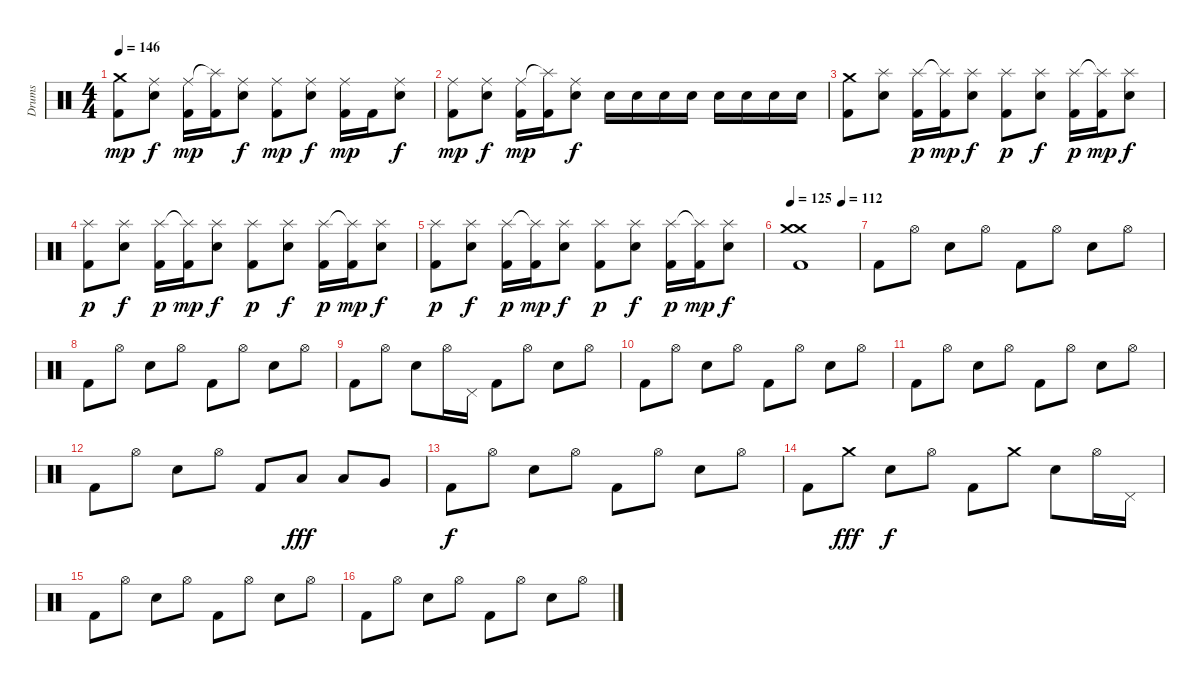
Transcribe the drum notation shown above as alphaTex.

\track ("Drums" "Drums") {instrument percussion}
\staff {score}
\articulation defaults
\ts (4 4)
\tempo 146
\clef neutral
\ks c
("Crash medium (hit)" "Kick (hit) 2").8{dy mp} ("Ride (middle)" "Snare (hit) 2").8{dy f} ("Ride (middle)" "Kick (hit) 2").16{dy mp} ("Splash (hit)"{t} "Kick (hit) 2").16 ("Ride (middle)" "Snare (hit) 2").8{dy f} ("Ride (middle)" "Kick (hit) 2").8{dy mp} ("Ride (middle)" "Snare (hit) 2").8{dy f} ("Ride (middle)" "Kick (hit) 2").16{dy mp} "Kick (hit) 2".16 ("Ride (middle)" "Snare (hit) 2").8{dy f} |
("Ride (middle)" "Kick (hit) 2").8{dy mp} ("Ride (middle)" "Snare (hit) 2").8{dy f} ("Ride (middle)" "Kick (hit) 2").16{dy mp} ("Splash (hit)"{t} "Kick (hit) 2").16 ("Ride (middle)" "Snare (hit) 2").8{dy f} "Snare (hit) 2".16 "Snare (hit) 2".16 "Snare (hit) 2".16 "Snare (hit) 2".16 "Snare (hit) 2".16 "Snare (hit) 2".16 "Snare (hit) 2".16 "Snare (hit) 2".16 |
("Crash medium (hit)" "Kick (hit) 2").8 ("Splash (hit)" "Snare (hit) 2").8 ("Splash (hit)" "Kick (hit) 2").16{dy p} ("Splash (hit)"{t} "Kick (hit) 2").16{dy mp} ("Splash (hit)" "Snare (hit) 2").8{dy f} ("Splash (hit)" "Kick (hit) 2").8{dy p} ("Splash (hit)" "Snare (hit) 2").8{dy f} ("Splash (hit)" "Kick (hit) 2").16{dy p} ("Splash (hit)"{t} "Kick (hit) 2").16{dy mp} ("Splash (hit)" "Snare (hit) 2").8{dy f} |
("Splash (hit)" "Kick (hit) 2").8{dy p} ("Splash (hit)" "Snare (hit) 2").8{dy f} ("Splash (hit)" "Kick (hit) 2").16{dy p} ("Splash (hit)"{t} "Kick (hit) 2").16{dy mp} ("Splash (hit)" "Snare (hit) 2").8{dy f} ("Splash (hit)" "Kick (hit) 2").8{dy p} ("Splash (hit)" "Snare (hit) 2").8{dy f} ("Splash (hit)" "Kick (hit) 2").16{dy p} ("Splash (hit)"{t} "Kick (hit) 2").16{dy mp} ("Splash (hit)" "Snare (hit) 2").8{dy f} |
("Splash (hit)" "Kick (hit) 2").8{dy p} ("Splash (hit)" "Snare (hit) 2").8{dy f} ("Splash (hit)" "Kick (hit) 2").16{dy p} ("Splash (hit)"{t} "Kick (hit) 2").16{dy mp} ("Splash (hit)" "Snare (hit) 2").8{dy f} ("Splash (hit)" "Kick (hit) 2").8{dy p} ("Splash (hit)" "Snare (hit) 2").8{dy f} ("Splash (hit)" "Kick (hit) 2").16{dy p} ("Splash (hit)"{t} "Kick (hit) 2").16{dy mp} ("Splash (hit)" "Snare (hit) 2").8{dy f} |
\tempo 125
\tempo (112 0.75)
("Crash medium (hit)" "Crash medium (hit)" "Kick (hit) 2").1 |
"Kick (hit) 2".8 "Hi-Hat (open)".8 "Snare (hit) 2".8 "Hi-Hat (open)".8 "Kick (hit) 2".8 "Hi-Hat (open)".8 "Snare (hit) 2".8 "Hi-Hat (open)".8 |
"Kick (hit) 2".8 "Hi-Hat (open)".8 "Snare (hit) 2".8 "Hi-Hat (open)".8 "Kick (hit) 2".8 "Hi-Hat (open)".8 "Snare (hit) 2".8 "Hi-Hat (open)".8 |
"Kick (hit) 2".8 "Hi-Hat (open)".8 "Snare (hit) 2".8 "Hi-Hat (open)".16 "Pedal Hi-Hat (hit)".16 "Kick (hit) 2".8 "Hi-Hat (open)".8 "Snare (hit) 2".8 "Hi-Hat (open)".8 |
"Kick (hit) 2".8 "Hi-Hat (open)".8 "Snare (hit) 2".8 "Hi-Hat (open)".8 "Kick (hit) 2".8 "Hi-Hat (open)".8 "Snare (hit) 2".8 "Hi-Hat (open)".8 |
"Kick (hit) 2".8 "Hi-Hat (open)".8 "Snare (hit) 2".8 "Hi-Hat (open)".8 "Kick (hit) 2".8 "Hi-Hat (open)".8 "Snare (hit) 2".8 "Hi-Hat (open)".8 |
"Kick (hit) 2".8 "Hi-Hat (open)".8 "Snare (hit) 2".8 "Hi-Hat (open)".8 "Kick (hit) 2".8 "Low Tom (hit)".8{dy fff} "Low Tom (hit)".8 "Very Low Tom (hit)".8 |
"Kick (hit) 2".8{dy f} "Hi-Hat (open)".8 "Snare (hit) 2".8 "Hi-Hat (open)".8 "Kick (hit) 2".8 "Hi-Hat (open)".8 "Snare (hit) 2".8 "Hi-Hat (open)".8 |
"Kick (hit) 2".8 "Crash medium (hit)".8{dy fff} "Snare (hit) 2".8{dy f} "Hi-Hat (open)".8 "Kick (hit) 2".8 "Crash medium (hit)".8 "Snare (hit) 2".8 "Hi-Hat (open)".16 "Pedal Hi-Hat (hit)".16 |
"Kick (hit) 2".8 "Hi-Hat (open)".8 "Snare (hit) 2".8 "Hi-Hat (open)".8 "Kick (hit) 2".8 "Hi-Hat (open)".8 "Snare (hit) 2".8 "Hi-Hat (open)".8 |
"Kick (hit) 2".8 "Hi-Hat (open)".8 "Snare (hit) 2".8 "Hi-Hat (open)".8 "Kick (hit) 2".8 "Hi-Hat (open)".8 "Snare (hit) 2".8 "Hi-Hat (open)".8
